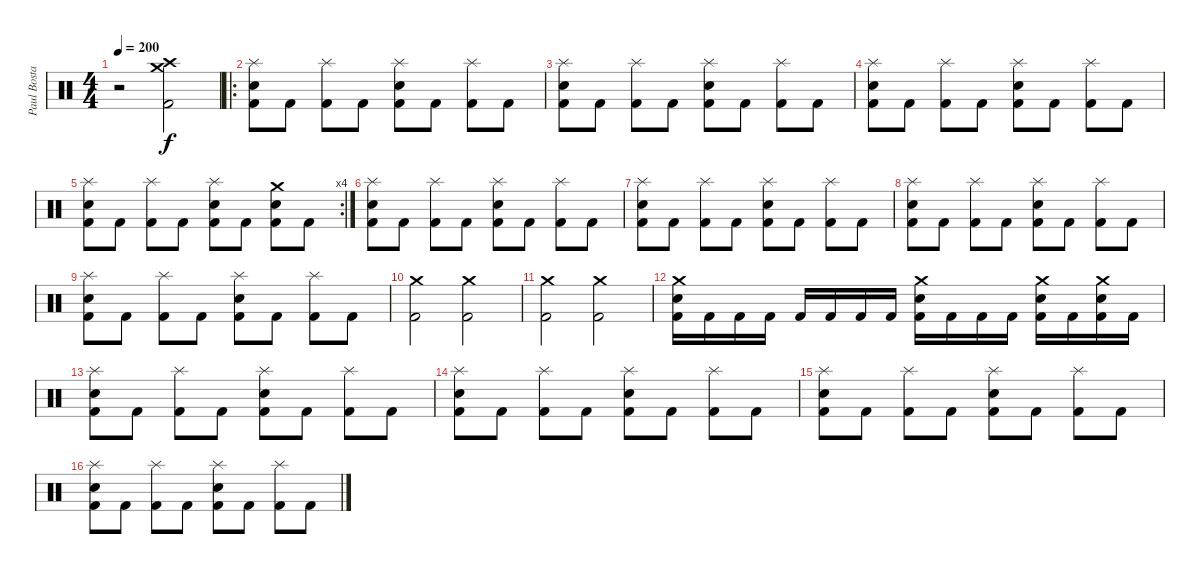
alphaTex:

\track ("Paul Bostaph" "Paul Bosta") {instrument percussion}
\staff {score}
\articulation defaults
\ts (4 4)
\tempo 200
\clef neutral
\ks c
r.2{dy f} ("Crash medium (hit)" "Crash high (hit)" "Kick (hit) 2").2 |
\ro
("Electric Snare (hit)" "Splash (hit)" "Kick (hit) 2").8 "Kick (hit) 2".8 ("Splash (hit)" "Kick (hit) 2").8 "Kick (hit) 2".8 ("Electric Snare (hit)" "Splash (hit)" "Kick (hit) 2").8 "Kick (hit) 2".8 ("Splash (hit)" "Kick (hit) 2").8 "Kick (hit) 2".8 |
("Electric Snare (hit)" "Splash (hit)" "Kick (hit) 2").8 "Kick (hit) 2".8 ("Splash (hit)" "Kick (hit) 2").8 "Kick (hit) 2".8 ("Electric Snare (hit)" "Splash (hit)" "Kick (hit) 2").8 "Kick (hit) 2".8 ("Splash (hit)" "Kick (hit) 2").8 "Kick (hit) 2".8 |
("Electric Snare (hit)" "Splash (hit)" "Kick (hit) 2").8 "Kick (hit) 2".8 ("Splash (hit)" "Kick (hit) 2").8 "Kick (hit) 2".8 ("Electric Snare (hit)" "Splash (hit)" "Kick (hit) 2").8 "Kick (hit) 2".8 ("Splash (hit)" "Kick (hit) 2").8 "Kick (hit) 2".8 |
\rc 4
("Electric Snare (hit)" "Splash (hit)" "Kick (hit) 2").8 "Kick (hit) 2".8 ("Splash (hit)" "Kick (hit) 2").8 "Kick (hit) 2".8 ("Electric Snare (hit)" "Splash (hit)" "Kick (hit) 2").8 "Kick (hit) 2".8 ("Crash medium (hit)" "Electric Snare (hit)" "Kick (hit) 2").8 "Kick (hit) 2".8 |
("Electric Snare (hit)" "Splash (hit)" "Kick (hit) 2").8 "Kick (hit) 2".8 ("Splash (hit)" "Kick (hit) 2").8 "Kick (hit) 2".8 ("Electric Snare (hit)" "Splash (hit)" "Kick (hit) 2").8 "Kick (hit) 2".8 ("Splash (hit)" "Kick (hit) 2").8 "Kick (hit) 2".8 |
("Electric Snare (hit)" "Splash (hit)" "Kick (hit) 2").8 "Kick (hit) 2".8 ("Splash (hit)" "Kick (hit) 2").8 "Kick (hit) 2".8 ("Electric Snare (hit)" "Splash (hit)" "Kick (hit) 2").8 "Kick (hit) 2".8 ("Splash (hit)" "Kick (hit) 2").8 "Kick (hit) 2".8 |
("Electric Snare (hit)" "Splash (hit)" "Kick (hit) 2").8 "Kick (hit) 2".8 ("Splash (hit)" "Kick (hit) 2").8 "Kick (hit) 2".8 ("Electric Snare (hit)" "Splash (hit)" "Kick (hit) 2").8 "Kick (hit) 2".8 ("Splash (hit)" "Kick (hit) 2").8 "Kick (hit) 2".8 |
("Electric Snare (hit)" "Splash (hit)" "Kick (hit) 2").8 "Kick (hit) 2".8 ("Splash (hit)" "Kick (hit) 2").8 "Kick (hit) 2".8 ("Electric Snare (hit)" "Splash (hit)" "Kick (hit) 2").8 "Kick (hit) 2".8 ("Splash (hit)" "Kick (hit) 2").8 "Kick (hit) 2".8 |
("Crash medium (hit)" "Kick (hit) 2").2 ("Crash medium (hit)" "Kick (hit) 2").2 |
("Crash medium (hit)" "Kick (hit) 2").2 ("Crash medium (hit)" "Kick (hit) 2").2 |
("Crash medium (hit)" "Electric Snare (hit)" "Kick (hit) 2").16 "Kick (hit) 2".16 "Kick (hit) 2".16 "Kick (hit) 2".16 "Kick (hit) 2".16 "Kick (hit) 2".16 "Kick (hit) 2".16 "Kick (hit) 2".16 ("Crash medium (hit)" "Electric Snare (hit)" "Kick (hit) 2").16 "Kick (hit) 2".16 "Kick (hit) 2".16 "Kick (hit) 2".16 ("Crash medium (hit)" "Electric Snare (hit)" "Kick (hit) 2").16 "Kick (hit) 2".16 ("Crash medium (hit)" "Electric Snare (hit)" "Kick (hit) 2").16 "Kick (hit) 2".16 |
("Electric Snare (hit)" "Splash (hit)" "Kick (hit) 2").8 "Kick (hit) 2".8 ("Splash (hit)" "Kick (hit) 2").8 "Kick (hit) 2".8 ("Electric Snare (hit)" "Splash (hit)" "Kick (hit) 2").8 "Kick (hit) 2".8 ("Splash (hit)" "Kick (hit) 2").8 "Kick (hit) 2".8 |
("Electric Snare (hit)" "Splash (hit)" "Kick (hit) 2").8 "Kick (hit) 2".8 ("Splash (hit)" "Kick (hit) 2").8 "Kick (hit) 2".8 ("Electric Snare (hit)" "Splash (hit)" "Kick (hit) 2").8 "Kick (hit) 2".8 ("Splash (hit)" "Kick (hit) 2").8 "Kick (hit) 2".8 |
("Electric Snare (hit)" "Splash (hit)" "Kick (hit) 2").8 "Kick (hit) 2".8 ("Splash (hit)" "Kick (hit) 2").8 "Kick (hit) 2".8 ("Electric Snare (hit)" "Splash (hit)" "Kick (hit) 2").8 "Kick (hit) 2".8 ("Splash (hit)" "Kick (hit) 2").8 "Kick (hit) 2".8 |
("Electric Snare (hit)" "Splash (hit)" "Kick (hit) 2").8 "Kick (hit) 2".8 ("Splash (hit)" "Kick (hit) 2").8 "Kick (hit) 2".8 ("Electric Snare (hit)" "Splash (hit)" "Kick (hit) 2").8 "Kick (hit) 2".8 ("Splash (hit)" "Kick (hit) 2").8 "Kick (hit) 2".8
